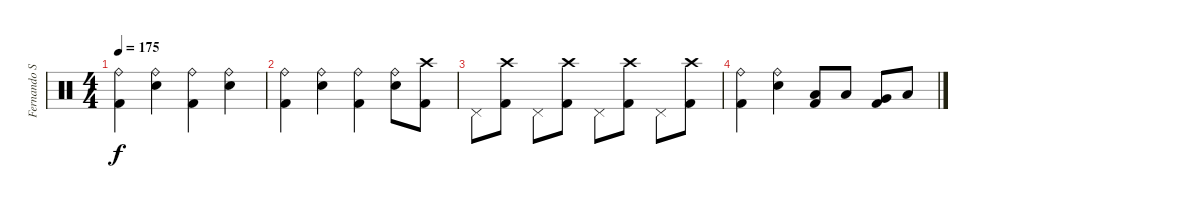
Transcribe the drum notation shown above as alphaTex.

\track ("Fernando Scarcella" "Fernando S") {instrument percussion}
\staff {score}
\articulation defaults
\ts (4 4)
\tempo 175
\clef neutral
\ks c
("Kick (hit) 2" "Ride (bell)").4{dy f} ("Snare (hit) 2" "Ride (bell)").4 ("Kick (hit) 2" "Ride (bell)").4 ("Snare (hit) 2" "Ride (bell)").4 |
("Kick (hit) 2" "Ride (bell)").4 ("Snare (hit) 2" "Ride (bell)").4 ("Kick (hit) 2" "Ride (bell)").4 ("Snare (hit) 2" "Ride (bell)").8 ("Kick (hit) 2" "Crash high (hit)").8 |
"Pedal Hi-Hat (hit)".8 ("Crash high (hit)" "Kick (hit) 2").8 "Pedal Hi-Hat (hit)".8 ("Crash high (hit)" "Kick (hit) 2").8 "Pedal Hi-Hat (hit)".8 ("Crash high (hit)" "Kick (hit) 2").8 "Pedal Hi-Hat (hit)".8 ("Crash high (hit)" "Kick (hit) 2").8 |
("Kick (hit) 2" "Ride (bell)").4 ("Snare (hit) 2" "Ride (bell)").4 ("Low Tom (hit)" "Kick (hit) 2").8 "Low Tom (hit)".8 ("Very Low Tom (hit)" "Kick (hit) 2").8 "Low Tom (hit)".8
